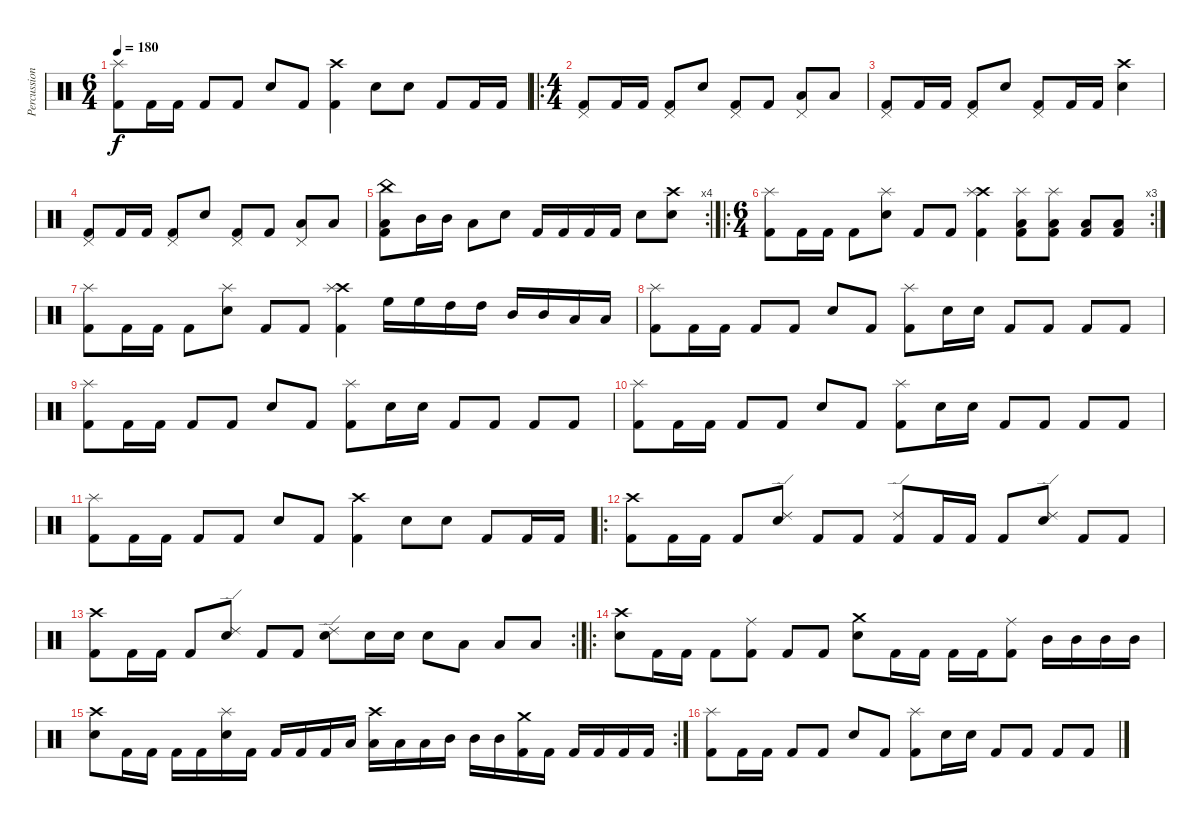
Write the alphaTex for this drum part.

\track ("Percussion" "Percussion") {instrument percussion}
\staff {score}
\articulation defaults
\ts (6 4)
\tempo 180
\clef neutral
\ks c
("Splash (hit)" "Kick (hit) 2").8{dy f} "Kick (hit) 2".16 "Kick (hit) 2".16 "Kick (hit) 2".8 "Kick (hit) 2".8 "Snare (hit) 2".8 "Kick (hit) 2".8 ("Crash high (hit)" "Kick (hit) 2").4 "Snare (hit) 2".8 "Snare (hit) 2".8 "Kick (hit) 2".8 "Kick (hit) 2".16 "Kick (hit) 2".16 |
\ro
\ts (4 4)
("Pedal Hi-Hat (hit)" "Kick (hit) 2").8 "Kick (hit) 2".16 "Kick (hit) 2".16 ("Pedal Hi-Hat (hit)" "Kick (hit) 2").8 "Snare (hit) 2".8 ("Pedal Hi-Hat (hit)" "Kick (hit) 2").8 "Kick (hit) 2".8 ("Pedal Hi-Hat (hit)" "Low Tom (hit)").8 "Low Tom (hit)".8 |
("Pedal Hi-Hat (hit)" "Kick (hit) 2").8 "Kick (hit) 2".16 "Kick (hit) 2".16 ("Pedal Hi-Hat (hit)" "Kick (hit) 2").8 "Snare (hit) 2".8 ("Pedal Hi-Hat (hit)" "Kick (hit) 2").8 "Kick (hit) 2".16 "Kick (hit) 2".16 ("Crash high (hit)" "Snare (hit) 2").4 |
("Pedal Hi-Hat (hit)" "Kick (hit) 2").8 "Kick (hit) 2".16 "Kick (hit) 2".16 ("Pedal Hi-Hat (hit)" "Kick (hit) 2").8 "Snare (hit) 2".8 ("Pedal Hi-Hat (hit)" "Kick (hit) 2").8 "Kick (hit) 2".8 ("Pedal Hi-Hat (hit)" "Low Tom (hit)").8 "Low Tom (hit)".8 |
\rc 4
("China (hit)" "Low Tom (hit)" "Kick (hit) 2").8 "Mid Tom (hit)".16 "Mid Tom (hit)".16 "Low Tom (hit)".8 "Snare (hit) 2".8 "Kick (hit) 2".16 "Kick (hit) 2".16 "Kick (hit) 2".16 "Kick (hit) 2".16 "Snare (hit) 2".8 ("Crash high (hit)" "Snare (hit) 2").8 |
\ro
\rc 3
\ts (6 4)
("Splash (hit)" "Kick (hit) 2").8 "Kick (hit) 2".16 "Kick (hit) 2".16 "Kick (hit) 2".8 ("Splash (hit)" "Snare (hit) 2").8 "Kick (hit) 2".8 "Kick (hit) 2".8 ("Crash high (hit)" "Splash (hit)" "Kick (hit) 2").4 ("Splash (hit)" "Low Tom (hit)" "Kick (hit) 2").8 ("Splash (hit)" "Low Tom (hit)" "Kick (hit) 2").8 ("Low Tom (hit)" "Kick (hit) 2").8 ("Low Tom (hit)" "Kick (hit) 2").8 |
("Splash (hit)" "Kick (hit) 2").8 "Kick (hit) 2".16 "Kick (hit) 2".16 "Kick (hit) 2".8 ("Splash (hit)" "Snare (hit) 2").8 "Kick (hit) 2".8 "Kick (hit) 2".8 ("Crash high (hit)" "Splash (hit)" "Kick (hit) 2").4 "High Floor Tom (hit)".16 "High Floor Tom (hit)".16 "High Tom (hit)".16 "High Tom (hit)".16 "Mid Tom (hit)".16 "Mid Tom (hit)".16 "Low Tom (hit)".16 "Low Tom (hit)".16 |
("Splash (hit)" "Kick (hit) 2").8 "Kick (hit) 2".16 "Kick (hit) 2".16 "Kick (hit) 2".8 "Kick (hit) 2".8 "Snare (hit) 2".8 "Kick (hit) 2".8 ("Splash (hit)" "Kick (hit) 2").8 "Snare (hit) 2".16 "Snare (hit) 2".16 "Kick (hit) 2".8 "Kick (hit) 2".8 "Kick (hit) 2".8 "Kick (hit) 2".8 |
("Splash (hit)" "Kick (hit) 2").8 "Kick (hit) 2".16 "Kick (hit) 2".16 "Kick (hit) 2".8 "Kick (hit) 2".8 "Snare (hit) 2".8 "Kick (hit) 2".8 ("Splash (hit)" "Kick (hit) 2").8 "Snare (hit) 2".16 "Snare (hit) 2".16 "Kick (hit) 2".8 "Kick (hit) 2".8 "Kick (hit) 2".8 "Kick (hit) 2".8 |
("Splash (hit)" "Kick (hit) 2").8 "Kick (hit) 2".16 "Kick (hit) 2".16 "Kick (hit) 2".8 "Kick (hit) 2".8 "Snare (hit) 2".8 "Kick (hit) 2".8 ("Splash (hit)" "Kick (hit) 2").8 "Snare (hit) 2".16 "Snare (hit) 2".16 "Kick (hit) 2".8 "Kick (hit) 2".8 "Kick (hit) 2".8 "Kick (hit) 2".8 |
("Splash (hit)" "Kick (hit) 2").8 "Kick (hit) 2".16 "Kick (hit) 2".16 "Kick (hit) 2".8 "Kick (hit) 2".8 "Snare (hit) 2".8 "Kick (hit) 2".8 ("Crash high (hit)" "Kick (hit) 2").4 "Snare (hit) 2".8 "Snare (hit) 2".8 "Kick (hit) 2".8 "Kick (hit) 2".16 "Kick (hit) 2".16 |
\ro
("Crash high (hit)" "Kick (hit) 2").8 "Kick (hit) 2".16 "Kick (hit) 2".16 "Kick (hit) 2".8 ("Ride (edge) 2" "Snare (hit) 2").8 "Kick (hit) 2".8 "Kick (hit) 2".8 ("Ride (edge) 2" "Kick (hit) 2").8 "Kick (hit) 2".16 "Kick (hit) 2".16 "Kick (hit) 2".8 ("Ride (edge) 2" "Snare (hit) 2").8 "Kick (hit) 2".8 "Kick (hit) 2".8 |
\rc 2
("Crash high (hit)" "Kick (hit) 2").8 "Kick (hit) 2".16 "Kick (hit) 2".16 "Kick (hit) 2".8 ("Ride (edge) 2" "Snare (hit) 2").8 "Kick (hit) 2".8 "Kick (hit) 2".8 ("Ride (edge) 2" "Snare (hit) 2").8 "Snare (hit) 2".16 "Snare (hit) 2".16 "Snare (hit) 2".8 "Low Tom (hit)".8 "Low Tom (hit)".8 "Low Tom (hit)".8 |
\ro
("Crash high (hit)" "Snare (hit) 2").8 "Kick (hit) 2".16 "Kick (hit) 2".16 "Kick (hit) 2".8 ("Ride (middle)" "Kick (hit) 2").8 "Kick (hit) 2".8 "Kick (hit) 2".8 ("Crash medium (hit)" "Snare (hit) 2").8 "Kick (hit) 2".16 "Kick (hit) 2".16 "Kick (hit) 2".16 "Kick (hit) 2".16 ("Ride (middle)" "Kick (hit) 2").8 "Mid Tom (hit)".16 "Mid Tom (hit)".16 "Mid Tom (hit)".16 "Mid Tom (hit)".16 |
\rc 2
("Crash high (hit)" "Snare (hit) 2").8 "Kick (hit) 2".16 "Kick (hit) 2".16 "Kick (hit) 2".16 "Kick (hit) 2".16 ("Splash (hit)" "Snare (hit) 2").16 "Kick (hit) 2".16 "Kick (hit) 2".16 "Kick (hit) 2".16 "Kick (hit) 2".16 "Low Tom (hit)".16 ("Crash high (hit)" "Low Tom (hit)").16 "Low Tom (hit)".16 "Low Tom (hit)".16 "Mid Tom (hit)".16 "Mid Tom (hit)".16 "Mid Tom (hit)".16 ("Crash medium (hit)" "Kick (hit) 2").16 "Kick (hit) 2".16 "Kick (hit) 2".16 "Kick (hit) 2".16 "Kick (hit) 2".16 "Kick (hit) 2".16 |
("Splash (hit)" "Kick (hit) 2").8 "Kick (hit) 2".16 "Kick (hit) 2".16 "Kick (hit) 2".8 "Kick (hit) 2".8 "Snare (hit) 2".8 "Kick (hit) 2".8 ("Splash (hit)" "Kick (hit) 2").8 "Snare (hit) 2".16 "Snare (hit) 2".16 "Kick (hit) 2".8 "Kick (hit) 2".8 "Kick (hit) 2".8 "Kick (hit) 2".8
